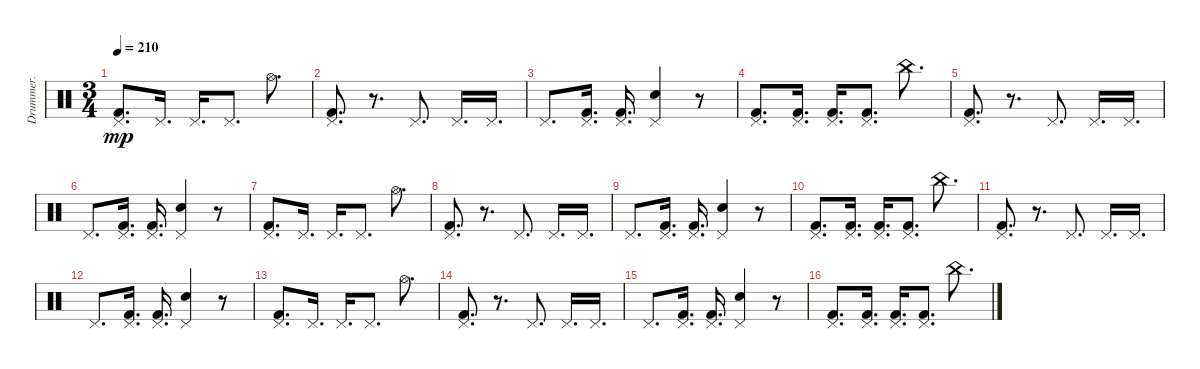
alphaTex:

\track ("Drummer." "Drummer.") {instrument percussion}
\staff {score}
\articulation defaults
\ts (3 4)
\tempo 210
\clef neutral
\ks c
("Pedal Hi-Hat (hit)" "Kick (hit) 2").8{d dy mp} "Pedal Hi-Hat (hit)".16{d} "Pedal Hi-Hat (hit)".16{d} "Pedal Hi-Hat (hit)".8{d} "Hi-Hat (open)".8{d} |
("Pedal Hi-Hat (hit)" "Kick (hit) 2").8{d} r.8{d} "Pedal Hi-Hat (hit)".8{d} "Pedal Hi-Hat (hit)".16{d} "Pedal Hi-Hat (hit)".16{d} |
"Pedal Hi-Hat (hit)".8{d} ("Pedal Hi-Hat (hit)" "Kick (hit) 2").16{d} ("Pedal Hi-Hat (hit)" "Kick (hit) 2").16{d} ("Pedal Hi-Hat (hit)" "Electric Snare (hit)").4 r.8 |
("Pedal Hi-Hat (hit)" "Kick (hit) 2").8{d} ("Pedal Hi-Hat (hit)" "Kick (hit) 2").16{d} ("Pedal Hi-Hat (hit)" "Kick (hit) 2").16{d} ("Pedal Hi-Hat (hit)" "Kick (hit) 2").8{d} "China (hit)".8{d} |
("Pedal Hi-Hat (hit)" "Kick (hit) 2").8{d} r.8{d} "Pedal Hi-Hat (hit)".8{d} "Pedal Hi-Hat (hit)".16{d} "Pedal Hi-Hat (hit)".16{d} |
"Pedal Hi-Hat (hit)".8{d} ("Pedal Hi-Hat (hit)" "Kick (hit) 2").16{d} ("Pedal Hi-Hat (hit)" "Kick (hit) 2").16{d} ("Pedal Hi-Hat (hit)" "Electric Snare (hit)").4 r.8 |
("Pedal Hi-Hat (hit)" "Kick (hit) 2").8{d} "Pedal Hi-Hat (hit)".16{d} "Pedal Hi-Hat (hit)".16{d} "Pedal Hi-Hat (hit)".8{d} "Hi-Hat (open)".8{d} |
("Pedal Hi-Hat (hit)" "Kick (hit) 2").8{d} r.8{d} "Pedal Hi-Hat (hit)".8{d} "Pedal Hi-Hat (hit)".16{d} "Pedal Hi-Hat (hit)".16{d} |
"Pedal Hi-Hat (hit)".8{d} ("Pedal Hi-Hat (hit)" "Kick (hit) 2").16{d} ("Pedal Hi-Hat (hit)" "Kick (hit) 2").16{d} ("Pedal Hi-Hat (hit)" "Electric Snare (hit)").4 r.8 |
("Pedal Hi-Hat (hit)" "Kick (hit) 2").8{d} ("Pedal Hi-Hat (hit)" "Kick (hit) 2").16{d} ("Pedal Hi-Hat (hit)" "Kick (hit) 2").16{d} ("Pedal Hi-Hat (hit)" "Kick (hit) 2").8{d} "China (hit)".8{d} |
("Pedal Hi-Hat (hit)" "Kick (hit) 2").8{d} r.8{d} "Pedal Hi-Hat (hit)".8{d} "Pedal Hi-Hat (hit)".16{d} "Pedal Hi-Hat (hit)".16{d} |
"Pedal Hi-Hat (hit)".8{d} ("Pedal Hi-Hat (hit)" "Kick (hit) 2").16{d} ("Pedal Hi-Hat (hit)" "Kick (hit) 2").16{d} ("Pedal Hi-Hat (hit)" "Electric Snare (hit)").4 r.8 |
("Pedal Hi-Hat (hit)" "Kick (hit) 2").8{d} "Pedal Hi-Hat (hit)".16{d} "Pedal Hi-Hat (hit)".16{d} "Pedal Hi-Hat (hit)".8{d} "Hi-Hat (open)".8{d} |
("Pedal Hi-Hat (hit)" "Kick (hit) 2").8{d} r.8{d} "Pedal Hi-Hat (hit)".8{d} "Pedal Hi-Hat (hit)".16{d} "Pedal Hi-Hat (hit)".16{d} |
"Pedal Hi-Hat (hit)".8{d} ("Pedal Hi-Hat (hit)" "Kick (hit) 2").16{d} ("Pedal Hi-Hat (hit)" "Kick (hit) 2").16{d} ("Pedal Hi-Hat (hit)" "Electric Snare (hit)").4 r.8 |
("Pedal Hi-Hat (hit)" "Kick (hit) 2").8{d} ("Pedal Hi-Hat (hit)" "Kick (hit) 2").16{d} ("Pedal Hi-Hat (hit)" "Kick (hit) 2").16{d} ("Pedal Hi-Hat (hit)" "Kick (hit) 2").8{d} "China (hit)".8{d}
